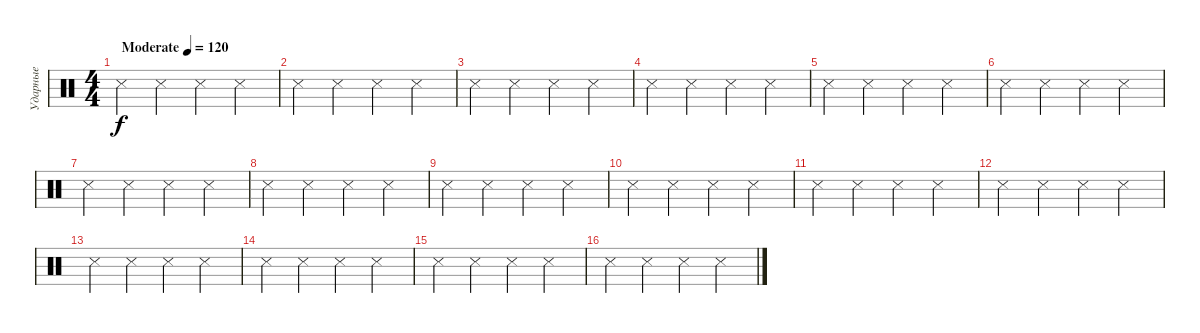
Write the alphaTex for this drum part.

\track ("Ударные" "Ударные") {instrument percussion}
\staff {score}
\articulation defaults
\ts (4 4)
\tempo (120 "Moderate")
\clef neutral
\ks c "Metronome (hit)".4{dy f} "Metronome (hit)".4 "Metronome (hit)".4 "Metronome (hit)".4
|
"Metronome (hit)".4 "Metronome (hit)".4 "Metronome (hit)".4 "Metronome (hit)".4 |
"Metronome (hit)".4 "Metronome (hit)".4 "Metronome (hit)".4 "Metronome (hit)".4 |
"Metronome (hit)".4 "Metronome (hit)".4 "Metronome (hit)".4 "Metronome (hit)".4 |
"Metronome (hit)".4 "Metronome (hit)".4 "Metronome (hit)".4 "Metronome (hit)".4 |
"Metronome (hit)".4 "Metronome (hit)".4 "Metronome (hit)".4 "Metronome (hit)".4 |
"Metronome (hit)".4 "Metronome (hit)".4 "Metronome (hit)".4 "Metronome (hit)".4 |
"Metronome (hit)".4 "Metronome (hit)".4 "Metronome (hit)".4 "Metronome (hit)".4 |
"Metronome (hit)".4 "Metronome (hit)".4 "Metronome (hit)".4 "Metronome (hit)".4 |
"Metronome (hit)".4 "Metronome (hit)".4 "Metronome (hit)".4 "Metronome (hit)".4 |
"Metronome (hit)".4 "Metronome (hit)".4 "Metronome (hit)".4 "Metronome (hit)".4 |
"Metronome (hit)".4 "Metronome (hit)".4 "Metronome (hit)".4 "Metronome (hit)".4 |
"Metronome (hit)".4 "Metronome (hit)".4 "Metronome (hit)".4 "Metronome (hit)".4 |
"Metronome (hit)".4 "Metronome (hit)".4 "Metronome (hit)".4 "Metronome (hit)".4 |
"Metronome (hit)".4 "Metronome (hit)".4 "Metronome (hit)".4 "Metronome (hit)".4 |
"Metronome (hit)".4 "Metronome (hit)".4 "Metronome (hit)".4 "Metronome (hit)".4
